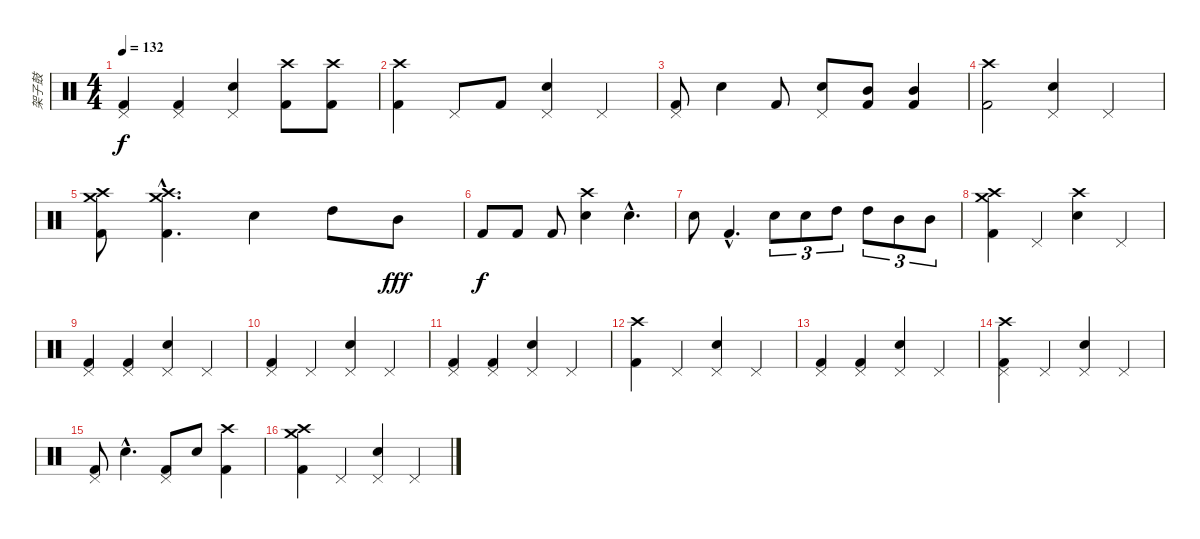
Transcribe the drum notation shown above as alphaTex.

\track ("架子鼓" "架子鼓") {instrument percussion}
\staff {score}
\articulation defaults
\ts (4 4)
\tempo 132
\clef neutral
\ks c
("Pedal Hi-Hat (hit)" "Kick (hit) 2").4{dy f} ("Pedal Hi-Hat (hit)" "Kick (hit) 2").4 ("Pedal Hi-Hat (hit)" "Electric Snare (hit)").4 ("Crash high (hit)" "Kick (hit) 2").8 ("Crash high (hit)" "Kick (hit) 2").8 |
("Crash high (hit)" "Kick (hit) 2").4 "Pedal Hi-Hat (hit)".8 "Kick (hit) 2".8 ("Pedal Hi-Hat (hit)" "Electric Snare (hit)").4 "Pedal Hi-Hat (hit)".4 |
("Pedal Hi-Hat (hit)" "Kick (hit) 2").8 "Electric Snare (hit)".4 "Kick (hit) 2".8 ("Electric Snare (hit)" "Pedal Hi-Hat (hit)").8 ("Mid Tom (hit)" "Kick (hit) 2").8 ("Mid Tom (hit)" "Kick (hit) 2").4 |
("Crash high (hit)" "Kick (hit) 2").2 ("Electric Snare (hit)" "Pedal Hi-Hat (hit)").4 "Pedal Hi-Hat (hit)".4 |
("Crash high (hit)" "Crash medium (hit)" "Kick (hit) 2").8 ("Crash high (hit)"{hac} "Crash medium (hit)"{hac} "Kick (hit) 2"{hac}).4{d} "Electric Snare (hit)".4 "High Tom (hit)".8 "Mid Tom (hit)".8{dy fff} |
"Kick (hit) 2".8{dy f} "Kick (hit) 2".8 "Kick (hit) 2".8 ("Crash high (hit)" "Electric Snare (hit)").4 "Electric Snare (hit)"{hac}.4{d} |
"Electric Snare (hit)".8 "Kick (hit) 2"{hac}.4{d} "Electric Snare (hit)".8{tu (3 2)} "Electric Snare (hit)".8{tu (3 2)} "High Tom (hit)".8{tu (3 2)} "High Tom (hit)".8{tu (3 2)} "Mid Tom (hit)".8{tu (3 2)} "Mid Tom (hit)".8{tu (3 2)} |
("Crash medium (hit)" "Crash high (hit)" "Kick (hit) 2").4 "Pedal Hi-Hat (hit)".4 ("Crash high (hit)" "Electric Snare (hit)").4 "Pedal Hi-Hat (hit)".4 |
("Pedal Hi-Hat (hit)" "Kick (hit) 2").4 ("Pedal Hi-Hat (hit)" "Kick (hit) 2").4 ("Pedal Hi-Hat (hit)" "Electric Snare (hit)").4 "Pedal Hi-Hat (hit)".4 |
("Pedal Hi-Hat (hit)" "Kick (hit) 2").4 "Pedal Hi-Hat (hit)".4 ("Electric Snare (hit)" "Pedal Hi-Hat (hit)").4 "Pedal Hi-Hat (hit)".4 |
("Pedal Hi-Hat (hit)" "Kick (hit) 2").4 ("Pedal Hi-Hat (hit)" "Kick (hit) 2").4 ("Electric Snare (hit)" "Pedal Hi-Hat (hit)").4 "Pedal Hi-Hat (hit)".4 |
("Crash high (hit)" "Kick (hit) 2").4 "Pedal Hi-Hat (hit)".4 ("Electric Snare (hit)" "Pedal Hi-Hat (hit)").4 "Pedal Hi-Hat (hit)".4 |
("Pedal Hi-Hat (hit)" "Kick (hit) 2").4 ("Pedal Hi-Hat (hit)" "Kick (hit) 2").4 ("Electric Snare (hit)" "Pedal Hi-Hat (hit)").4 "Pedal Hi-Hat (hit)".4 |
("Crash high (hit)" "Pedal Hi-Hat (hit)" "Kick (hit) 2").4 "Pedal Hi-Hat (hit)".4 ("Electric Snare (hit)" "Pedal Hi-Hat (hit)").4 "Pedal Hi-Hat (hit)".4 |
("Pedal Hi-Hat (hit)" "Kick (hit) 2").8 "Electric Snare (hit)"{hac}.4{d} ("Pedal Hi-Hat (hit)" "Kick (hit) 2").8 "Electric Snare (hit)".8 ("Crash high (hit)" "Kick (hit) 2").4 |
("Crash medium (hit)" "Crash high (hit)" "Kick (hit) 2").4 "Pedal Hi-Hat (hit)".4 ("Electric Snare (hit)" "Pedal Hi-Hat (hit)").4 "Pedal Hi-Hat (hit)".4
